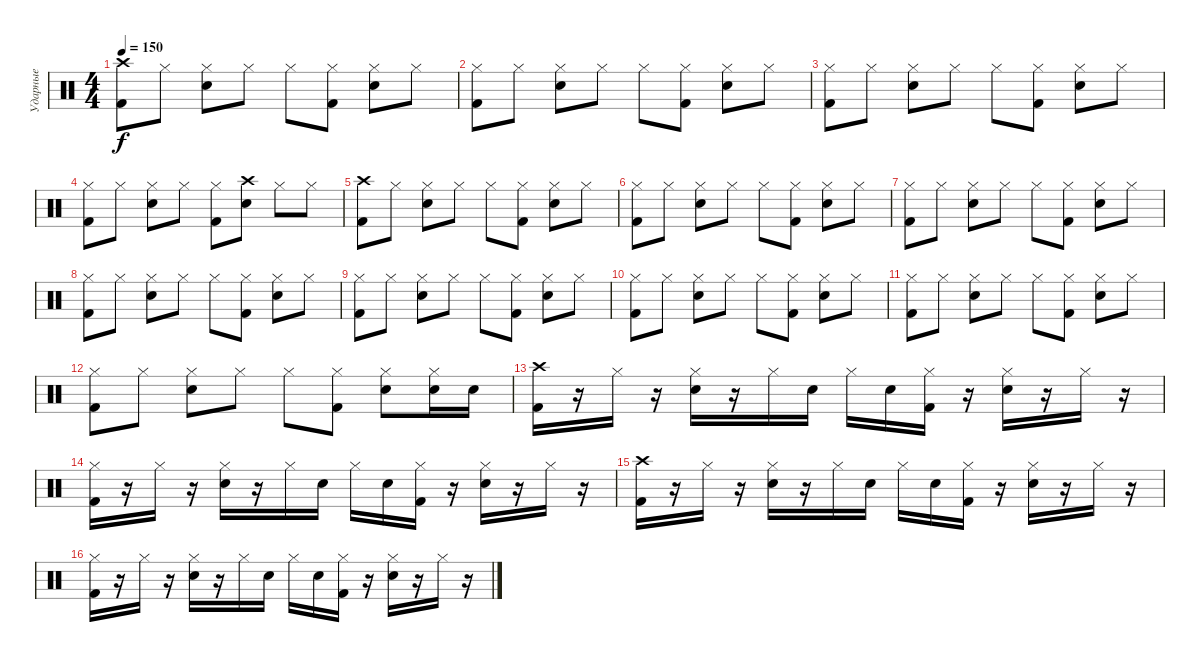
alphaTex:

\track ("Ударные" "Ударные") {instrument percussion}
\staff {score}
\articulation defaults
\ts (4 4)
\tempo 150
\clef neutral
\ks c
("Kick (hit) 2" "Crash high (hit)").8{dy f} "Hi-Hat (closed)".8 ("Electric Snare (hit)" "Hi-Hat (closed)").8 "Hi-Hat (closed)".8 "Hi-Hat (closed)".8 ("Kick (hit) 2" "Hi-Hat (closed)").8 ("Electric Snare (hit)" "Hi-Hat (closed)").8 "Hi-Hat (closed)".8 |
("Kick (hit) 2" "Hi-Hat (closed)").8 "Hi-Hat (closed)".8 ("Electric Snare (hit)" "Hi-Hat (closed)").8 "Hi-Hat (closed)".8 "Hi-Hat (closed)".8 ("Kick (hit) 2" "Hi-Hat (closed)").8 ("Electric Snare (hit)" "Hi-Hat (closed)").8 "Hi-Hat (closed)".8 |
("Kick (hit) 2" "Hi-Hat (closed)").8 "Hi-Hat (closed)".8 ("Electric Snare (hit)" "Hi-Hat (closed)").8 "Hi-Hat (closed)".8 "Hi-Hat (closed)".8 ("Kick (hit) 2" "Hi-Hat (closed)").8 ("Electric Snare (hit)" "Hi-Hat (closed)").8 "Hi-Hat (closed)".8 |
("Kick (hit) 2" "Hi-Hat (closed)").8 "Hi-Hat (closed)".8 ("Electric Snare (hit)" "Hi-Hat (closed)").8 "Hi-Hat (closed)".8 ("Kick (hit) 2" "Hi-Hat (closed)").8 ("Electric Snare (hit)" "Crash high (hit)").8 "Hi-Hat (closed)".8 "Hi-Hat (closed)".8 |
("Kick (hit) 2" "Crash high (hit)").8 "Hi-Hat (closed)".8 ("Electric Snare (hit)" "Hi-Hat (closed)").8 "Hi-Hat (closed)".8 "Hi-Hat (closed)".8 ("Kick (hit) 2" "Hi-Hat (closed)").8 ("Electric Snare (hit)" "Hi-Hat (closed)").8 "Hi-Hat (closed)".8 |
("Kick (hit) 2" "Hi-Hat (closed)").8 "Hi-Hat (closed)".8 ("Electric Snare (hit)" "Hi-Hat (closed)").8 "Hi-Hat (closed)".8 "Hi-Hat (closed)".8 ("Kick (hit) 2" "Hi-Hat (closed)").8 ("Electric Snare (hit)" "Hi-Hat (closed)").8 "Hi-Hat (closed)".8 |
("Kick (hit) 2" "Hi-Hat (closed)").8 "Hi-Hat (closed)".8 ("Electric Snare (hit)" "Hi-Hat (closed)").8 "Hi-Hat (closed)".8 "Hi-Hat (closed)".8 ("Kick (hit) 2" "Hi-Hat (closed)").8 ("Electric Snare (hit)" "Hi-Hat (closed)").8 "Hi-Hat (closed)".8 |
("Kick (hit) 2" "Hi-Hat (closed)").8 "Hi-Hat (closed)".8 ("Electric Snare (hit)" "Hi-Hat (closed)").8 "Hi-Hat (closed)".8 "Hi-Hat (closed)".8 ("Kick (hit) 2" "Hi-Hat (closed)").8 ("Electric Snare (hit)" "Hi-Hat (closed)").8 "Hi-Hat (closed)".8 |
("Kick (hit) 2" "Hi-Hat (closed)").8 "Hi-Hat (closed)".8 ("Electric Snare (hit)" "Hi-Hat (closed)").8 "Hi-Hat (closed)".8 "Hi-Hat (closed)".8 ("Kick (hit) 2" "Hi-Hat (closed)").8 ("Electric Snare (hit)" "Hi-Hat (closed)").8 "Hi-Hat (closed)".8 |
("Kick (hit) 2" "Hi-Hat (closed)").8 "Hi-Hat (closed)".8 ("Electric Snare (hit)" "Hi-Hat (closed)").8 "Hi-Hat (closed)".8 "Hi-Hat (closed)".8 ("Kick (hit) 2" "Hi-Hat (closed)").8 ("Electric Snare (hit)" "Hi-Hat (closed)").8 "Hi-Hat (closed)".8 |
("Kick (hit) 2" "Hi-Hat (closed)").8 "Hi-Hat (closed)".8 ("Electric Snare (hit)" "Hi-Hat (closed)").8 "Hi-Hat (closed)".8 "Hi-Hat (closed)".8 ("Kick (hit) 2" "Hi-Hat (closed)").8 ("Electric Snare (hit)" "Hi-Hat (closed)").8 "Hi-Hat (closed)".8 |
("Kick (hit) 2" "Hi-Hat (closed)").8 "Hi-Hat (closed)".8 ("Electric Snare (hit)" "Hi-Hat (closed)").8 "Hi-Hat (closed)".8 "Hi-Hat (closed)".8 ("Kick (hit) 2" "Hi-Hat (closed)").8 ("Electric Snare (hit)" "Hi-Hat (closed)").8 ("Electric Snare (hit)" "Hi-Hat (closed)").16 "Electric Snare (hit)".16 |
("Kick (hit) 2" "Crash high (hit)").16 r.16 "Hi-Hat (closed)".16 r.16 ("Electric Snare (hit)" "Hi-Hat (closed)").16 r.16 "Hi-Hat (closed)".16 "Electric Snare (hit)".16 "Hi-Hat (closed)".16 "Electric Snare (hit)".16 ("Kick (hit) 2" "Hi-Hat (closed)").16 r.16 ("Electric Snare (hit)" "Hi-Hat (closed)").16 r.16 "Hi-Hat (closed)".16 r.16 |
("Kick (hit) 2" "Hi-Hat (closed)").16 r.16 "Hi-Hat (closed)".16 r.16 ("Electric Snare (hit)" "Hi-Hat (closed)").16 r.16 "Hi-Hat (closed)".16 "Electric Snare (hit)".16 "Hi-Hat (closed)".16 "Electric Snare (hit)".16 ("Kick (hit) 2" "Hi-Hat (closed)").16 r.16 ("Electric Snare (hit)" "Hi-Hat (closed)").16 r.16 "Hi-Hat (closed)".16 r.16 |
("Kick (hit) 2" "Crash high (hit)").16 r.16 "Hi-Hat (closed)".16 r.16 ("Electric Snare (hit)" "Hi-Hat (closed)").16 r.16 "Hi-Hat (closed)".16 "Electric Snare (hit)".16 "Hi-Hat (closed)".16 "Electric Snare (hit)".16 ("Kick (hit) 2" "Hi-Hat (closed)").16 r.16 ("Electric Snare (hit)" "Hi-Hat (closed)").16 r.16 "Hi-Hat (closed)".16 r.16 |
("Kick (hit) 2" "Hi-Hat (closed)").16 r.16 "Hi-Hat (closed)".16 r.16 ("Electric Snare (hit)" "Hi-Hat (closed)").16 r.16 "Hi-Hat (closed)".16 "Electric Snare (hit)".16 "Hi-Hat (closed)".16 "Electric Snare (hit)".16 ("Kick (hit) 2" "Hi-Hat (closed)").16 r.16 ("Electric Snare (hit)" "Hi-Hat (closed)").16 r.16 "Hi-Hat (closed)".16 r.16
